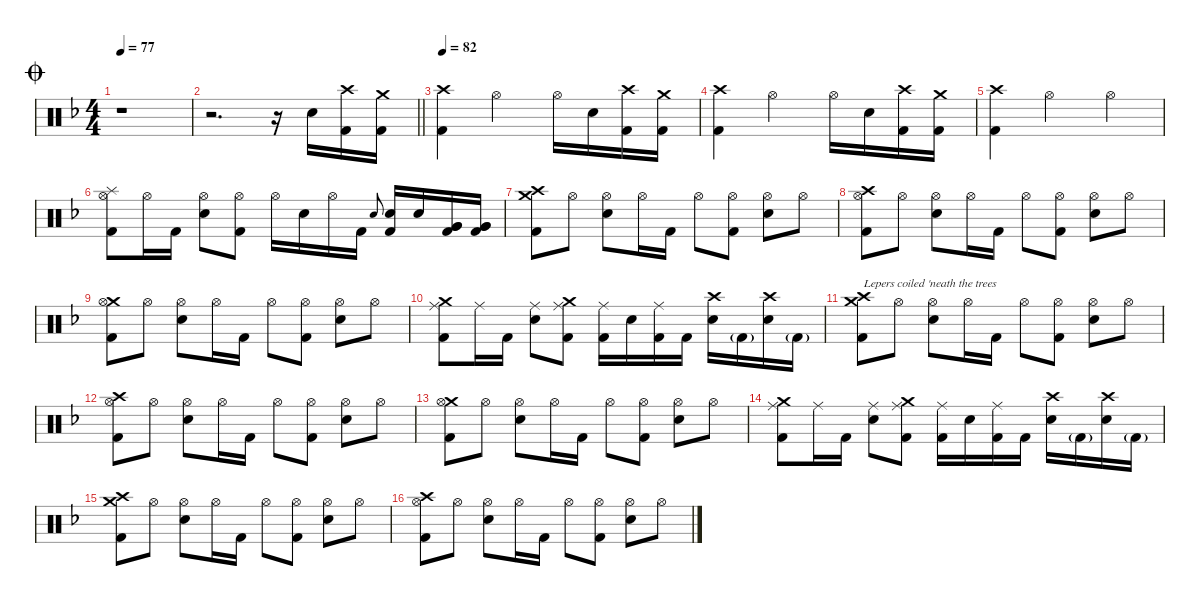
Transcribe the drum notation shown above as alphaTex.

\defaultSystemsLayout 4
\hideDynamics
\bracketExtendMode nobrackets
\singleTrackTrackNamePolicy hidden
\multiTrackTrackNamePolicy hidden
\firstSystemTrackNameMode fullname
\firstSystemTrackNameOrientation horizontal
\otherSystemsTrackNameOrientation horizontal
\track ("Martin Lopez - Drums" "drm.") {instrument percussion}
\staff {score}
\articulation defaults
\ts (4 4)
\jump coda
\tempo 77
\clef neutral
\ks f
r.1{dy f beam Down} |
\barLineRight lightlight
r.2{d beam Down} r.16{beam Down} "Snare (hit) 2"{acc forcenatural}.16{beam Down} ("Crash high (hit)"{acc forcenatural} "Kick (hit) 2"{acc forcenatural}).16{beam Down} ("Crash medium (hit)"{acc forcenatural} "Kick (hit) 2"{acc forcenatural}).16{beam Down} |
\tempo 82
("Crash high (hit)"{acc forcenatural} "Kick (hit) 2"{acc forcenatural}).4{beam Down} "Hi-Hat (open)"{acc forcenatural}.2{beam Down} "Hi-Hat (open)"{acc forcenatural}.16{beam Down} "Snare (hit) 2"{acc forcenatural}.16{beam Down} ("Crash high (hit)"{acc forcenatural} "Kick (hit) 2"{acc forcenatural}).16{beam Down} ("Crash medium (hit)"{acc forcenatural} "Kick (hit) 2"{acc forcenatural}).16{beam Down} |
("Crash high (hit)"{acc forcenatural} "Kick (hit) 2"{acc forcenatural}).4{beam Down} "Hi-Hat (open)"{acc forcenatural}.2{beam Down} "Hi-Hat (open)"{acc forcenatural}.16{beam Down} "Snare (hit) 2"{acc forcenatural}.16{beam Down} ("Crash high (hit)"{acc forcenatural} "Kick (hit) 2"{acc forcenatural}).16{beam Down} ("Crash medium (hit)"{acc forcenatural} "Kick (hit) 2"{acc forcenatural}).16{beam Down} |
("Crash high (hit)"{acc forcenatural} "Kick (hit) 2"{acc forcenatural}).4{beam Down} "Hi-Hat (open)"{acc forcenatural}.2{beam Down} "Hi-Hat (open)"{acc forcenatural}.4{beam Down} |
("Splash (hit)"{acc forcenatural} "Hi-Hat (open)"{acc forcenatural} "Kick (hit) 2"{acc forcenatural}).8{beam Down} "Hi-Hat (open)"{acc forcenatural}.16{beam Down} "Kick (hit) 2"{acc forcenatural}.16{beam Down} ("Hi-Hat (open)"{acc forcenatural} "Snare (hit) 2"{acc forcenatural}).8{beam Down} ("Hi-Hat (open)"{acc forcenatural} "Kick (hit) 2"{acc forcenatural}).8{beam Down} "Hi-Hat (open)"{acc forcenatural}.16{beam Down} "Snare (hit) 2"{acc forcenatural}.16{beam Down} "Hi-Hat (open)"{acc forcenatural}.16{beam Down} "Kick (hit) 2"{acc forcenatural}.16{beam Down} "Electric Snare (hit)"{acc forcenatural}.8{gr onbeat dy mf beam Up} ("Snare (hit) 2"{acc forcenatural} "Kick (hit) 2"{acc forcenatural}).16{dy f beam Up} "Snare (hit) 2"{acc forcenatural}.16{beam Up} ("Very Low Tom (hit)"{acc forcenatural} "Very Low Tom (hit)"{acc forcenatural} "Kick (hit) 2"{acc forcenatural}).16{beam Up} ("Very Low Tom (hit)"{acc forcenatural} "Very Low Tom (hit)"{acc forcenatural} "Kick (hit) 2"{acc forcenatural}).16{beam Up} |
("Crash high (hit)"{acc forcenatural} "Crash medium (hit)"{acc forcenatural} "Kick (hit) 2"{acc forcenatural}).8{beam Down} "Hi-Hat (open)"{acc forcenatural}.8{beam Down} ("Hi-Hat (open)"{acc forcenatural} "Snare (hit) 2"{acc forcenatural}).8{beam Down} "Hi-Hat (open)"{acc forcenatural}.16{beam Down} "Kick (hit) 2"{acc forcenatural}.16{beam Down} "Hi-Hat (open)"{acc forcenatural}.8{beam Down} ("Hi-Hat (open)"{acc forcenatural} "Kick (hit) 2"{acc forcenatural}).8{beam Down} ("Hi-Hat (open)"{acc forcenatural} "Snare (hit) 2"{acc forcenatural}).8{beam Down} "Hi-Hat (open)"{acc forcenatural}.8{beam Down} |
("Crash high (hit)"{acc forcenatural} "Hi-Hat (open)"{acc forcenatural} "Kick (hit) 2"{acc forcenatural}).8{beam Down} "Hi-Hat (open)"{acc forcenatural}.8{beam Down} ("Hi-Hat (open)"{acc forcenatural} "Snare (hit) 2"{acc forcenatural}).8{beam Down} "Hi-Hat (open)"{acc forcenatural}.16{beam Down} "Kick (hit) 2"{acc forcenatural}.16{beam Down} "Hi-Hat (open)"{acc forcenatural}.8{beam Down} ("Hi-Hat (open)"{acc forcenatural} "Kick (hit) 2"{acc forcenatural}).8{beam Down} ("Hi-Hat (open)"{acc forcenatural} "Snare (hit) 2"{acc forcenatural}).8{beam Down} "Hi-Hat (open)"{acc forcenatural}.8{beam Down} |
("Crash medium (hit)"{acc forcenatural} "Hi-Hat (open)"{acc forcenatural} "Kick (hit) 2"{acc forcenatural}).8{beam Down} "Hi-Hat (open)"{acc forcenatural}.8{beam Down} ("Hi-Hat (open)"{acc forcenatural} "Snare (hit) 2"{acc forcenatural}).8{beam Down} "Hi-Hat (open)"{acc forcenatural}.16{beam Down} "Kick (hit) 2"{acc forcenatural}.16{beam Down} "Hi-Hat (open)"{acc forcenatural}.8{beam Down} ("Hi-Hat (open)"{acc forcenatural} "Kick (hit) 2"{acc forcenatural}).8{beam Down} ("Hi-Hat (open)"{acc forcenatural} "Snare (hit) 2"{acc forcenatural}).8{beam Down} "Hi-Hat (open)"{acc forcenatural}.8{beam Down} |
("Crash medium (hit)"{acc forcenatural} "Ride (middle)"{acc forcenatural} "Kick (hit) 2"{acc forcenatural}).8{beam Down} "Ride (middle)"{acc forcenatural}.16{beam Down} "Kick (hit) 2"{acc forcenatural}.16{beam Down} ("Ride (middle)"{acc forcenatural} "Snare (hit) 2"{acc forcenatural}).8{beam Down} ("Crash medium (hit)"{acc forcenatural} "Ride (middle)"{acc forcenatural} "Kick (hit) 2"{acc forcenatural}).8{beam Down} ("Ride (middle)"{acc forcenatural} "Kick (hit) 2"{acc forcenatural}).16{beam Down} "Snare (hit) 2"{acc forcenatural}.16{beam Down} ("Ride (middle)"{acc forcenatural} "Kick (hit) 2"{acc forcenatural}).16{beam Down} "Kick (hit) 2"{acc forcenatural}.16{beam Down} ("Crash high (hit)"{acc forcenatural} "Snare (hit) 2"{acc forcenatural}).16{beam Down} "Kick (hit) 2"{g acc forcenatural}.16{dy mf beam Down} ("Crash high (hit)"{acc forcenatural} "Snare (hit) 2"{acc forcenatural}).16{dy f beam Down} "Kick (hit) 2"{g acc forcenatural}.16{dy mf beam Down} |
("Crash high (hit)"{acc forcenatural} "Crash medium (hit)"{acc forcenatural} "Kick (hit) 2"{acc forcenatural}).8{txt "Lepers coiled 'neath the trees" dy f beam Down} "Hi-Hat (open)"{acc forcenatural}.8{beam Down} ("Hi-Hat (open)"{acc forcenatural} "Snare (hit) 2"{acc forcenatural}).8{beam Down} "Hi-Hat (open)"{acc forcenatural}.16{beam Down} "Kick (hit) 2"{acc forcenatural}.16{beam Down} "Hi-Hat (open)"{acc forcenatural}.8{beam Down} ("Hi-Hat (open)"{acc forcenatural} "Kick (hit) 2"{acc forcenatural}).8{beam Down} ("Hi-Hat (open)"{acc forcenatural} "Snare (hit) 2"{acc forcenatural}).8{beam Down} "Hi-Hat (open)"{acc forcenatural}.8{beam Down} |
("Crash high (hit)"{acc forcenatural} "Hi-Hat (open)"{acc forcenatural} "Kick (hit) 2"{acc forcenatural}).8{beam Down} "Hi-Hat (open)"{acc forcenatural}.8{beam Down} ("Hi-Hat (open)"{acc forcenatural} "Snare (hit) 2"{acc forcenatural}).8{beam Down} "Hi-Hat (open)"{acc forcenatural}.16{beam Down} "Kick (hit) 2"{acc forcenatural}.16{beam Down} "Hi-Hat (open)"{acc forcenatural}.8{beam Down} ("Hi-Hat (open)"{acc forcenatural} "Kick (hit) 2"{acc forcenatural}).8{beam Down} ("Hi-Hat (open)"{acc forcenatural} "Snare (hit) 2"{acc forcenatural}).8{beam Down} "Hi-Hat (open)"{acc forcenatural}.8{beam Down} |
("Crash medium (hit)"{acc forcenatural} "Hi-Hat (open)"{acc forcenatural} "Kick (hit) 2"{acc forcenatural}).8{beam Down} "Hi-Hat (open)"{acc forcenatural}.8{beam Down} ("Hi-Hat (open)"{acc forcenatural} "Snare (hit) 2"{acc forcenatural}).8{beam Down} "Hi-Hat (open)"{acc forcenatural}.16{beam Down} "Kick (hit) 2"{acc forcenatural}.16{beam Down} "Hi-Hat (open)"{acc forcenatural}.8{beam Down} ("Hi-Hat (open)"{acc forcenatural} "Kick (hit) 2"{acc forcenatural}).8{beam Down} ("Hi-Hat (open)"{acc forcenatural} "Snare (hit) 2"{acc forcenatural}).8{beam Down} "Hi-Hat (open)"{acc forcenatural}.8{beam Down} |
("Crash medium (hit)"{acc forcenatural} "Ride (middle)"{acc forcenatural} "Kick (hit) 2"{acc forcenatural}).8{beam Down} "Ride (middle)"{acc forcenatural}.16{beam Down} "Kick (hit) 2"{acc forcenatural}.16{beam Down} ("Ride (middle)"{acc forcenatural} "Snare (hit) 2"{acc forcenatural}).8{beam Down} ("Crash medium (hit)"{acc forcenatural} "Ride (middle)"{acc forcenatural} "Kick (hit) 2"{acc forcenatural}).8{beam Down} ("Ride (middle)"{acc forcenatural} "Kick (hit) 2"{acc forcenatural}).16{beam Down} "Snare (hit) 2"{acc forcenatural}.16{beam Down} ("Ride (middle)"{acc forcenatural} "Kick (hit) 2"{acc forcenatural}).16{beam Down} "Kick (hit) 2"{acc forcenatural}.16{beam Down} ("Crash high (hit)"{acc forcenatural} "Snare (hit) 2"{acc forcenatural}).16{beam Down} "Kick (hit) 2"{g acc forcenatural}.16{dy mf beam Down} ("Crash high (hit)"{acc forcenatural} "Snare (hit) 2"{acc forcenatural}).16{dy f beam Down} "Kick (hit) 2"{g acc forcenatural}.16{dy mf beam Down} |
("Crash high (hit)"{acc forcenatural} "Crash medium (hit)"{acc forcenatural} "Kick (hit) 2"{acc forcenatural}).8{dy f beam Down} "Hi-Hat (open)"{acc forcenatural}.8{beam Down} ("Hi-Hat (open)"{acc forcenatural} "Snare (hit) 2"{acc forcenatural}).8{beam Down} "Hi-Hat (open)"{acc forcenatural}.16{beam Down} "Kick (hit) 2"{acc forcenatural}.16{beam Down} "Hi-Hat (open)"{acc forcenatural}.8{beam Down} ("Hi-Hat (open)"{acc forcenatural} "Kick (hit) 2"{acc forcenatural}).8{beam Down} ("Hi-Hat (open)"{acc forcenatural} "Snare (hit) 2"{acc forcenatural}).8{beam Down} "Hi-Hat (open)"{acc forcenatural}.8{beam Down} |
("Crash high (hit)"{acc forcenatural} "Hi-Hat (open)"{acc forcenatural} "Kick (hit) 2"{acc forcenatural}).8{beam Down} "Hi-Hat (open)"{acc forcenatural}.8{beam Down} ("Hi-Hat (open)"{acc forcenatural} "Snare (hit) 2"{acc forcenatural}).8{beam Down} "Hi-Hat (open)"{acc forcenatural}.16{beam Down} "Kick (hit) 2"{acc forcenatural}.16{beam Down} "Hi-Hat (open)"{acc forcenatural}.8{beam Down} ("Hi-Hat (open)"{acc forcenatural} "Kick (hit) 2"{acc forcenatural}).8{beam Down} ("Hi-Hat (open)"{acc forcenatural} "Snare (hit) 2"{acc forcenatural}).8{beam Down} "Hi-Hat (open)"{acc forcenatural}.8{beam Down}
